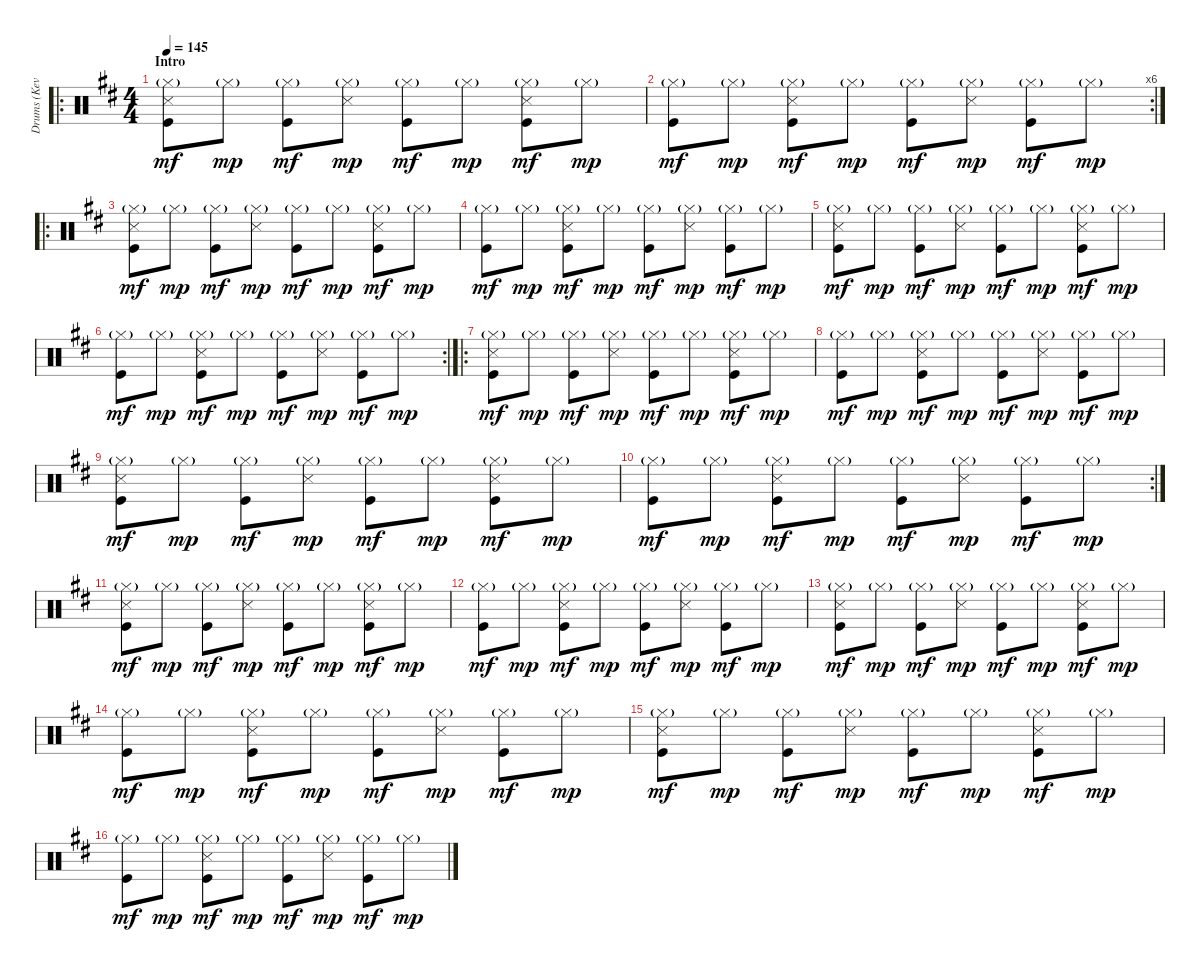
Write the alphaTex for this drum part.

\track ("Drums (Kevin Haskins)" "Drums (Kev") {instrument percussion}
\staff {score}
\articulation defaults
\ro
\ts (4 4)
\section ("" "Intro")
\tempo 145
\clef neutral
\ks d
("Hi-Hat (closed)"{g} "Snare (side stick) 3" "Kick (hit)").8{dy mf} "Hi-Hat (closed)"{g}.8{dy mp} ("Hi-Hat (closed)"{g} "Kick (hit)").8{dy mf} ("Hi-Hat (closed)"{g} "Snare (side stick) 3").8{dy mp} ("Hi-Hat (closed)"{g} "Kick (hit)").8{dy mf} "Hi-Hat (closed)"{g}.8{dy mp} ("Hi-Hat (closed)"{g} "Snare (side stick) 3" "Kick (hit)").8{dy mf} "Hi-Hat (closed)"{g}.8{dy mp} |
\rc 6
("Hi-Hat (closed)"{g} "Kick (hit)").8{dy mf} "Hi-Hat (closed)"{g}.8{dy mp} ("Hi-Hat (closed)"{g} "Snare (side stick) 3" "Kick (hit)").8{dy mf} "Hi-Hat (closed)"{g}.8{dy mp} ("Hi-Hat (closed)"{g} "Kick (hit)").8{dy mf} ("Hi-Hat (closed)"{g} "Snare (side stick) 3").8{dy mp} ("Hi-Hat (closed)"{g} "Kick (hit)").8{dy mf} "Hi-Hat (closed)"{g}.8{dy mp} |
\ro
("Hi-Hat (closed)"{g} "Snare (side stick) 3" "Kick (hit)").8{dy mf} "Hi-Hat (closed)"{g}.8{dy mp} ("Hi-Hat (closed)"{g} "Kick (hit)").8{dy mf} ("Hi-Hat (closed)"{g} "Snare (side stick) 3").8{dy mp} ("Hi-Hat (closed)"{g} "Kick (hit)").8{dy mf} "Hi-Hat (closed)"{g}.8{dy mp} ("Hi-Hat (closed)"{g} "Snare (side stick) 3" "Kick (hit)").8{dy mf} "Hi-Hat (closed)"{g}.8{dy mp} |
("Hi-Hat (closed)"{g} "Kick (hit)").8{dy mf} "Hi-Hat (closed)"{g}.8{dy mp} ("Hi-Hat (closed)"{g} "Snare (side stick) 3" "Kick (hit)").8{dy mf} "Hi-Hat (closed)"{g}.8{dy mp} ("Hi-Hat (closed)"{g} "Kick (hit)").8{dy mf} ("Hi-Hat (closed)"{g} "Snare (side stick) 3").8{dy mp} ("Hi-Hat (closed)"{g} "Kick (hit)").8{dy mf} "Hi-Hat (closed)"{g}.8{dy mp} |
("Hi-Hat (closed)"{g} "Snare (side stick) 3" "Kick (hit)").8{dy mf} "Hi-Hat (closed)"{g}.8{dy mp} ("Hi-Hat (closed)"{g} "Kick (hit)").8{dy mf} ("Hi-Hat (closed)"{g} "Snare (side stick) 3").8{dy mp} ("Hi-Hat (closed)"{g} "Kick (hit)").8{dy mf} "Hi-Hat (closed)"{g}.8{dy mp} ("Hi-Hat (closed)"{g} "Snare (side stick) 3" "Kick (hit)").8{dy mf} "Hi-Hat (closed)"{g}.8{dy mp} |
\rc 2
("Hi-Hat (closed)"{g} "Kick (hit)").8{dy mf} "Hi-Hat (closed)"{g}.8{dy mp} ("Hi-Hat (closed)"{g} "Snare (side stick) 3" "Kick (hit)").8{dy mf} "Hi-Hat (closed)"{g}.8{dy mp} ("Hi-Hat (closed)"{g} "Kick (hit)").8{dy mf} ("Hi-Hat (closed)"{g} "Snare (side stick) 3").8{dy mp} ("Hi-Hat (closed)"{g} "Kick (hit)").8{dy mf} "Hi-Hat (closed)"{g}.8{dy mp} |
\ro
("Hi-Hat (closed)"{g} "Snare (side stick) 3" "Kick (hit)").8{dy mf} "Hi-Hat (closed)"{g}.8{dy mp} ("Hi-Hat (closed)"{g} "Kick (hit)").8{dy mf} ("Hi-Hat (closed)"{g} "Snare (side stick) 3").8{dy mp} ("Hi-Hat (closed)"{g} "Kick (hit)").8{dy mf} "Hi-Hat (closed)"{g}.8{dy mp} ("Hi-Hat (closed)"{g} "Snare (side stick) 3" "Kick (hit)").8{dy mf} "Hi-Hat (closed)"{g}.8{dy mp} |
("Hi-Hat (closed)"{g} "Kick (hit)").8{dy mf} "Hi-Hat (closed)"{g}.8{dy mp} ("Hi-Hat (closed)"{g} "Snare (side stick) 3" "Kick (hit)").8{dy mf} "Hi-Hat (closed)"{g}.8{dy mp} ("Hi-Hat (closed)"{g} "Kick (hit)").8{dy mf} ("Hi-Hat (closed)"{g} "Snare (side stick) 3").8{dy mp} ("Hi-Hat (closed)"{g} "Kick (hit)").8{dy mf} "Hi-Hat (closed)"{g}.8{dy mp} |
("Hi-Hat (closed)"{g} "Snare (side stick) 3" "Kick (hit)").8{dy mf} "Hi-Hat (closed)"{g}.8{dy mp} ("Hi-Hat (closed)"{g} "Kick (hit)").8{dy mf} ("Hi-Hat (closed)"{g} "Snare (side stick) 3").8{dy mp} ("Hi-Hat (closed)"{g} "Kick (hit)").8{dy mf} "Hi-Hat (closed)"{g}.8{dy mp} ("Hi-Hat (closed)"{g} "Snare (side stick) 3" "Kick (hit)").8{dy mf} "Hi-Hat (closed)"{g}.8{dy mp} |
\rc 2
("Hi-Hat (closed)"{g} "Kick (hit)").8{dy mf} "Hi-Hat (closed)"{g}.8{dy mp} ("Hi-Hat (closed)"{g} "Snare (side stick) 3" "Kick (hit)").8{dy mf} "Hi-Hat (closed)"{g}.8{dy mp} ("Hi-Hat (closed)"{g} "Kick (hit)").8{dy mf} ("Hi-Hat (closed)"{g} "Snare (side stick) 3").8{dy mp} ("Hi-Hat (closed)"{g} "Kick (hit)").8{dy mf} "Hi-Hat (closed)"{g}.8{dy mp} |
("Hi-Hat (closed)"{g} "Snare (side stick) 3" "Kick (hit)").8{dy mf} "Hi-Hat (closed)"{g}.8{dy mp} ("Hi-Hat (closed)"{g} "Kick (hit)").8{dy mf} ("Hi-Hat (closed)"{g} "Snare (side stick) 3").8{dy mp} ("Hi-Hat (closed)"{g} "Kick (hit)").8{dy mf} "Hi-Hat (closed)"{g}.8{dy mp} ("Hi-Hat (closed)"{g} "Snare (side stick) 3" "Kick (hit)").8{dy mf} "Hi-Hat (closed)"{g}.8{dy mp} |
("Hi-Hat (closed)"{g} "Kick (hit)").8{dy mf} "Hi-Hat (closed)"{g}.8{dy mp} ("Hi-Hat (closed)"{g} "Snare (side stick) 3" "Kick (hit)").8{dy mf} "Hi-Hat (closed)"{g}.8{dy mp} ("Hi-Hat (closed)"{g} "Kick (hit)").8{dy mf} ("Hi-Hat (closed)"{g} "Snare (side stick) 3").8{dy mp} ("Hi-Hat (closed)"{g} "Kick (hit)").8{dy mf} "Hi-Hat (closed)"{g}.8{dy mp} |
("Hi-Hat (closed)"{g} "Snare (side stick) 3" "Kick (hit)").8{dy mf} "Hi-Hat (closed)"{g}.8{dy mp} ("Hi-Hat (closed)"{g} "Kick (hit)").8{dy mf} ("Hi-Hat (closed)"{g} "Snare (side stick) 3").8{dy mp} ("Hi-Hat (closed)"{g} "Kick (hit)").8{dy mf} "Hi-Hat (closed)"{g}.8{dy mp} ("Hi-Hat (closed)"{g} "Snare (side stick) 3" "Kick (hit)").8{dy mf} "Hi-Hat (closed)"{g}.8{dy mp} |
("Hi-Hat (closed)"{g} "Kick (hit)").8{dy mf} "Hi-Hat (closed)"{g}.8{dy mp} ("Hi-Hat (closed)"{g} "Snare (side stick) 3" "Kick (hit)").8{dy mf} "Hi-Hat (closed)"{g}.8{dy mp} ("Hi-Hat (closed)"{g} "Kick (hit)").8{dy mf} ("Hi-Hat (closed)"{g} "Snare (side stick) 3").8{dy mp} ("Hi-Hat (closed)"{g} "Kick (hit)").8{dy mf} "Hi-Hat (closed)"{g}.8{dy mp} |
("Hi-Hat (closed)"{g} "Snare (side stick) 3" "Kick (hit)").8{dy mf} "Hi-Hat (closed)"{g}.8{dy mp} ("Hi-Hat (closed)"{g} "Kick (hit)").8{dy mf} ("Hi-Hat (closed)"{g} "Snare (side stick) 3").8{dy mp} ("Hi-Hat (closed)"{g} "Kick (hit)").8{dy mf} "Hi-Hat (closed)"{g}.8{dy mp} ("Hi-Hat (closed)"{g} "Snare (side stick) 3" "Kick (hit)").8{dy mf} "Hi-Hat (closed)"{g}.8{dy mp} |
("Hi-Hat (closed)"{g} "Kick (hit)").8{dy mf} "Hi-Hat (closed)"{g}.8{dy mp} ("Hi-Hat (closed)"{g} "Snare (side stick) 3" "Kick (hit)").8{dy mf} "Hi-Hat (closed)"{g}.8{dy mp} ("Hi-Hat (closed)"{g} "Kick (hit)").8{dy mf} ("Hi-Hat (closed)"{g} "Snare (side stick) 3").8{dy mp} ("Hi-Hat (closed)"{g} "Kick (hit)").8{dy mf} "Hi-Hat (closed)"{g}.8{dy mp}
